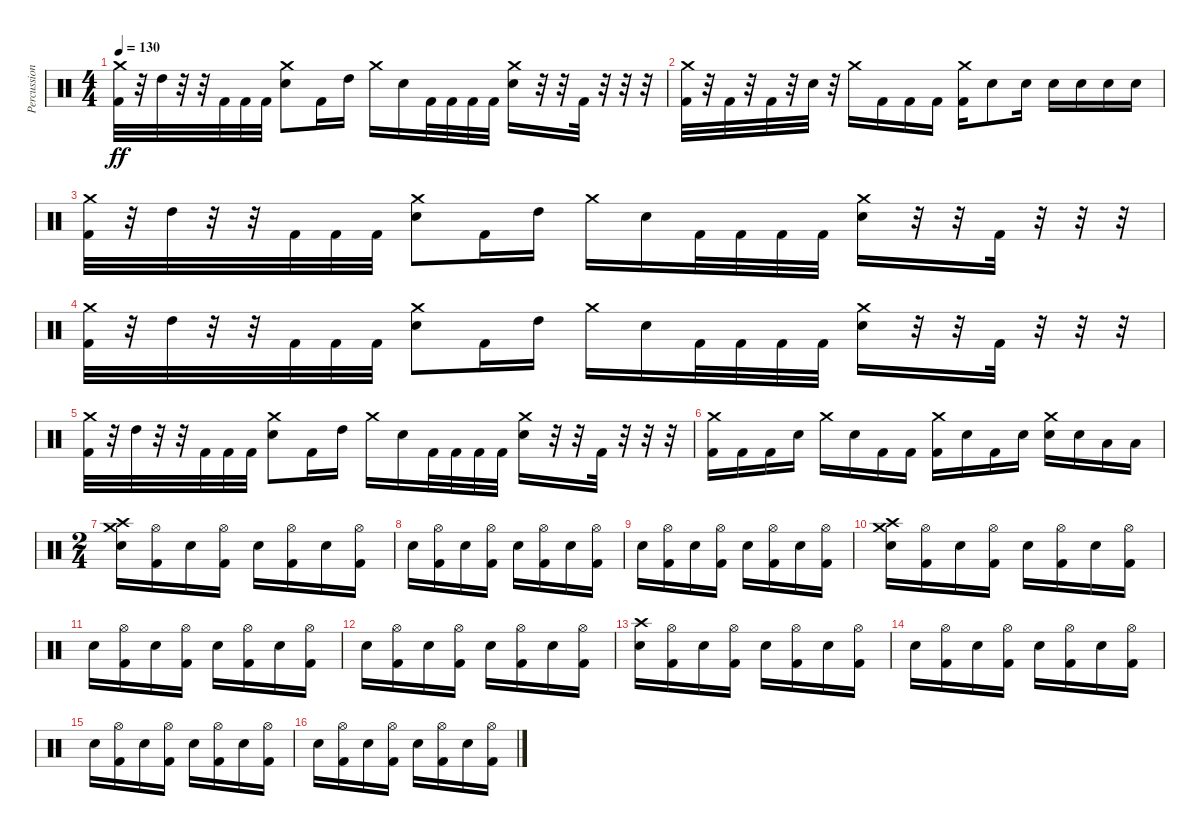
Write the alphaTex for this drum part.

\track ("Percussion" "Percussion") {instrument percussion}
\staff {score}
\articulation defaults
\ts (4 4)
\tempo 130
\clef neutral
\ks c
("Crash medium (hit)" "Kick (hit) 2").32{dy ff} r.32 "High Tom (hit)".32 r.32 r.32 "Kick (hit) 2".32 "Kick (hit) 2".32 "Kick (hit) 2".32 ("Crash medium (hit)" "Snare (hit) 2").8 "Kick (hit) 2".16 "High Tom (hit)".16 "Crash medium (hit)".16 "Snare (hit) 2".16 "Kick (hit) 2".32 "Kick (hit) 2".32 "Kick (hit) 2".32 "Kick (hit) 2".32 ("Crash medium (hit)" "Snare (hit) 2").16 r.32 r.32 "Kick (hit) 2".32 r.32 r.32 r.32 |
("Crash medium (hit)" "Kick (hit) 2").32 r.32 "Kick (hit) 2".32 r.32 "Kick (hit) 2".32 r.32 "Snare (hit) 2".32 r.32 "Crash medium (hit)".16 "Kick (hit) 2".16 "Kick (hit) 2".16 "Kick (hit) 2".16 ("Crash medium (hit)" "Kick (hit) 2").16 "Snare (hit) 2".8 "Snare (hit) 2".16 "Snare (hit) 2".16 "Snare (hit) 2".16 "Snare (hit) 2".16 "Snare (hit) 2".16 |
("Crash medium (hit)" "Kick (hit) 2").32 r.32 "High Tom (hit)".32 r.32 r.32 "Kick (hit) 2".32 "Kick (hit) 2".32 "Kick (hit) 2".32 ("Crash medium (hit)" "Snare (hit) 2").8 "Kick (hit) 2".16 "High Tom (hit)".16 "Crash medium (hit)".16 "Snare (hit) 2".16 "Kick (hit) 2".32 "Kick (hit) 2".32 "Kick (hit) 2".32 "Kick (hit) 2".32 ("Crash medium (hit)" "Snare (hit) 2").16 r.32 r.32 "Kick (hit) 2".32 r.32 r.32 r.32 |
("Crash medium (hit)" "Kick (hit) 2").32 r.32 "High Tom (hit)".32 r.32 r.32 "Kick (hit) 2".32 "Kick (hit) 2".32 "Kick (hit) 2".32 ("Crash medium (hit)" "Snare (hit) 2").8 "Kick (hit) 2".16 "High Tom (hit)".16 "Crash medium (hit)".16 "Snare (hit) 2".16 "Kick (hit) 2".32 "Kick (hit) 2".32 "Kick (hit) 2".32 "Kick (hit) 2".32 ("Crash medium (hit)" "Snare (hit) 2").16 r.32 r.32 "Kick (hit) 2".32 r.32 r.32 r.32 |
("Crash medium (hit)" "Kick (hit) 2").32 r.32 "High Tom (hit)".32 r.32 r.32 "Kick (hit) 2".32 "Kick (hit) 2".32 "Kick (hit) 2".32 ("Crash medium (hit)" "Snare (hit) 2").8 "Kick (hit) 2".16 "High Tom (hit)".16 "Crash medium (hit)".16 "Snare (hit) 2".16 "Kick (hit) 2".32 "Kick (hit) 2".32 "Kick (hit) 2".32 "Kick (hit) 2".32 ("Crash medium (hit)" "Snare (hit) 2").16 r.32 r.32 "Kick (hit) 2".32 r.32 r.32 r.32 |
("Crash medium (hit)" "Kick (hit) 2").16 "Kick (hit) 2".16 "Kick (hit) 2".16 "Snare (hit) 2".16 "Crash medium (hit)".16 "Snare (hit) 2".16 "Kick (hit) 2".16 "Kick (hit) 2".16 ("Crash medium (hit)" "Kick (hit) 2").16 "Snare (hit) 2".16 "Kick (hit) 2".16 "Snare (hit) 2".16 ("Crash medium (hit)" "Snare (hit) 2").16 "Snare (hit) 2".16 "Low Tom (hit)".16 "Low Tom (hit)".16 |
\ts (2 4)
("Crash medium (hit)" "Crash high (hit)" "Snare (hit) 2").16 ("Hi-Hat (open)" "Kick (hit) 2").16 "Snare (hit) 2".16 ("Hi-Hat (open)" "Kick (hit) 2").16 "Snare (hit) 2".16 ("Hi-Hat (open)" "Kick (hit) 2").16 "Snare (hit) 2".16 ("Hi-Hat (open)" "Kick (hit) 2").16 |
"Snare (hit) 2".16 ("Hi-Hat (open)" "Kick (hit) 2").16 "Snare (hit) 2".16 ("Hi-Hat (open)" "Kick (hit) 2").16 "Snare (hit) 2".16 ("Hi-Hat (open)" "Kick (hit) 2").16 "Snare (hit) 2".16 ("Hi-Hat (open)" "Kick (hit) 2").16 |
"Snare (hit) 2".16 ("Hi-Hat (open)" "Kick (hit) 2").16 "Snare (hit) 2".16 ("Hi-Hat (open)" "Kick (hit) 2").16 "Snare (hit) 2".16 ("Hi-Hat (open)" "Kick (hit) 2").16 "Snare (hit) 2".16 ("Hi-Hat (open)" "Kick (hit) 2").16 |
("Crash medium (hit)" "Crash high (hit)" "Snare (hit) 2").16 ("Hi-Hat (open)" "Kick (hit) 2").16 "Snare (hit) 2".16 ("Hi-Hat (open)" "Kick (hit) 2").16 "Snare (hit) 2".16 ("Hi-Hat (open)" "Kick (hit) 2").16 "Snare (hit) 2".16 ("Hi-Hat (open)" "Kick (hit) 2").16 |
"Snare (hit) 2".16 ("Hi-Hat (open)" "Kick (hit) 2").16 "Snare (hit) 2".16 ("Hi-Hat (open)" "Kick (hit) 2").16 "Snare (hit) 2".16 ("Hi-Hat (open)" "Kick (hit) 2").16 "Snare (hit) 2".16 ("Hi-Hat (open)" "Kick (hit) 2").16 |
"Snare (hit) 2".16 ("Hi-Hat (open)" "Kick (hit) 2").16 "Snare (hit) 2".16 ("Hi-Hat (open)" "Kick (hit) 2").16 "Snare (hit) 2".16 ("Hi-Hat (open)" "Kick (hit) 2").16 "Snare (hit) 2".16 ("Hi-Hat (open)" "Kick (hit) 2").16 |
("Crash high (hit)" "Snare (hit) 2").16 ("Hi-Hat (open)" "Kick (hit) 2").16 "Snare (hit) 2".16 ("Hi-Hat (open)" "Kick (hit) 2").16 "Snare (hit) 2".16 ("Hi-Hat (open)" "Kick (hit) 2").16 "Snare (hit) 2".16 ("Hi-Hat (open)" "Kick (hit) 2").16 |
"Snare (hit) 2".16 ("Hi-Hat (open)" "Kick (hit) 2").16 "Snare (hit) 2".16 ("Hi-Hat (open)" "Kick (hit) 2").16 "Snare (hit) 2".16 ("Hi-Hat (open)" "Kick (hit) 2").16 "Snare (hit) 2".16 ("Hi-Hat (open)" "Kick (hit) 2").16 |
"Snare (hit) 2".16 ("Hi-Hat (open)" "Kick (hit) 2").16 "Snare (hit) 2".16 ("Hi-Hat (open)" "Kick (hit) 2").16 "Snare (hit) 2".16 ("Hi-Hat (open)" "Kick (hit) 2").16 "Snare (hit) 2".16 ("Hi-Hat (open)" "Kick (hit) 2").16 |
"Snare (hit) 2".16 ("Hi-Hat (open)" "Kick (hit) 2").16 "Snare (hit) 2".16 ("Hi-Hat (open)" "Kick (hit) 2").16 "Snare (hit) 2".16 ("Hi-Hat (open)" "Kick (hit) 2").16 "Snare (hit) 2".16 ("Hi-Hat (open)" "Kick (hit) 2").16
